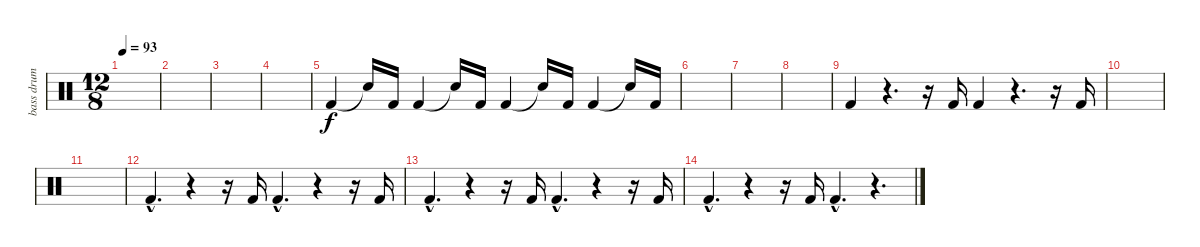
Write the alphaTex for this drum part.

\track ("bass drum" "bass drum") {instrument percussion}
\staff {score}
\articulation defaults
\ts (12 8)
\tempo 93
\clef neutral
\ks c
|
|
|
|
"Kick (hit) 2".4 "Snare (hit)"{t}.16 "Kick (hit) 2".16 "Kick (hit) 2".4 "Snare (hit)"{t}.16 "Kick (hit) 2".16 "Kick (hit) 2".4 "Snare (hit)"{t}.16 "Kick (hit) 2".16 "Kick (hit) 2".4 "Snare (hit)"{t}.16 "Kick (hit) 2".16 |
|
|
|
"Kick (hit) 2".4 r.4{d} r.16 "Kick (hit) 2".16 "Kick (hit) 2".4 r.4{d} r.16 "Kick (hit) 2".16 |
|
|
"Kick (hit) 2"{hac}.4{d} r.4 r.16 "Kick (hit) 2".16 "Kick (hit) 2"{hac}.4{d} r.4 r.16 "Kick (hit) 2".16 |
"Kick (hit) 2"{hac}.4{d} r.4 r.16 "Kick (hit) 2".16 "Kick (hit) 2"{hac}.4{d} r.4 r.16 "Kick (hit) 2".16 |
"Kick (hit) 2"{hac}.4{d} r.4 r.16 "Kick (hit) 2".16 "Kick (hit) 2"{hac}.4{d} r.4{d}
